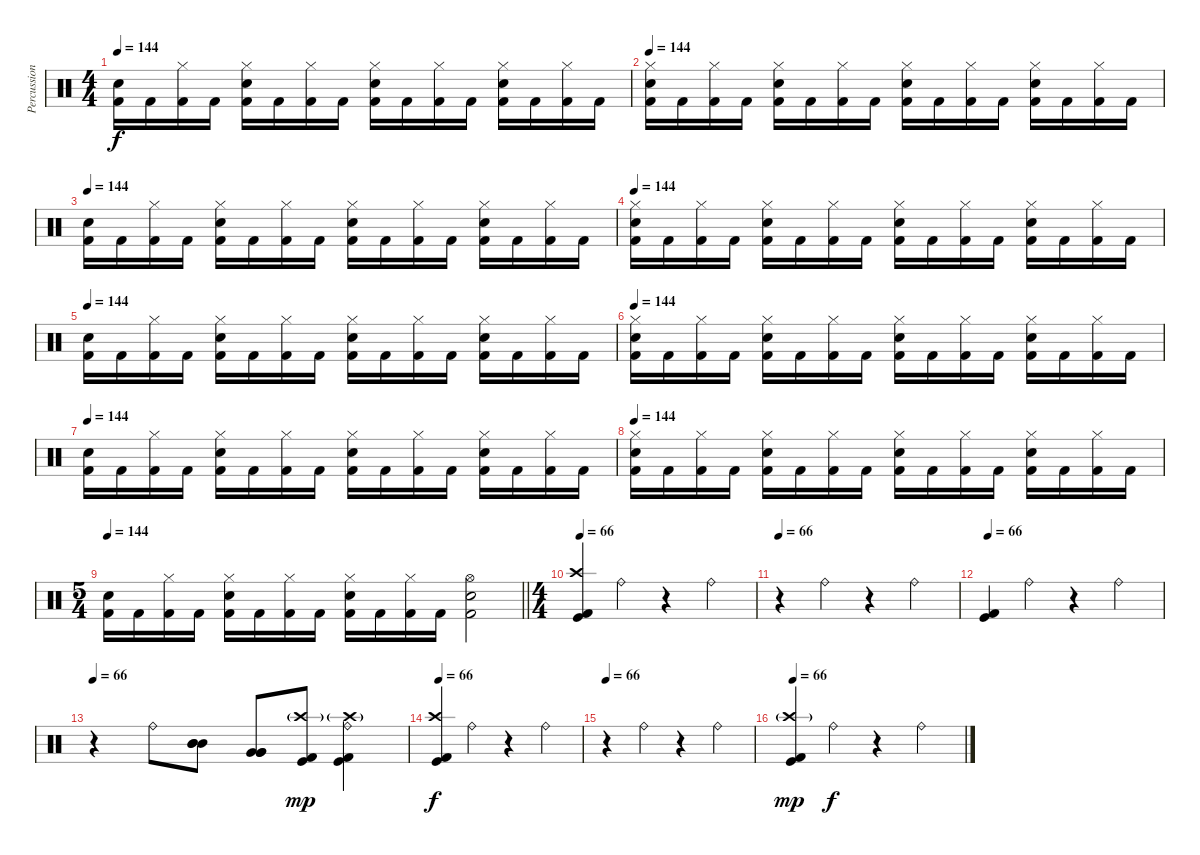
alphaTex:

\track ("Percussions" "Percussion") {instrument percussion}
\staff {score}
\articulation defaults
\ts (4 4)
\tempo 144
\clef neutral
\ks c
("Electric Snare (hit)" "Kick (hit) 2").16{dy f} "Kick (hit) 2".16 ("Hi-Hat (closed)" "Kick (hit) 2").16 "Kick (hit) 2".16 ("Hi-Hat (closed)" "Electric Snare (hit)" "Kick (hit) 2").16 "Kick (hit) 2".16 ("Hi-Hat (closed)" "Kick (hit) 2").16 "Kick (hit) 2".16 ("Hi-Hat (closed)" "Electric Snare (hit)" "Kick (hit) 2").16 "Kick (hit) 2".16 ("Hi-Hat (closed)" "Kick (hit) 2").16 "Kick (hit) 2".16 ("Hi-Hat (closed)" "Electric Snare (hit)" "Kick (hit) 2").16 "Kick (hit) 2".16 ("Hi-Hat (closed)" "Kick (hit) 2").16 "Kick (hit) 2".16 |
\tempo 144
("Hi-Hat (closed)" "Electric Snare (hit)" "Kick (hit) 2").16 "Kick (hit) 2".16 ("Hi-Hat (closed)" "Kick (hit) 2").16 "Kick (hit) 2".16 ("Hi-Hat (closed)" "Electric Snare (hit)" "Kick (hit) 2").16 "Kick (hit) 2".16 ("Hi-Hat (closed)" "Kick (hit) 2").16 "Kick (hit) 2".16 ("Hi-Hat (closed)" "Electric Snare (hit)" "Kick (hit) 2").16 "Kick (hit) 2".16 ("Hi-Hat (closed)" "Kick (hit) 2").16 "Kick (hit) 2".16 ("Hi-Hat (closed)" "Electric Snare (hit)" "Kick (hit) 2").16 "Kick (hit) 2".16 ("Hi-Hat (closed)" "Kick (hit) 2").16 "Kick (hit) 2".16 |
\tempo 144
("Electric Snare (hit)" "Kick (hit) 2").16 "Kick (hit) 2".16 ("Hi-Hat (closed)" "Kick (hit) 2").16 "Kick (hit) 2".16 ("Hi-Hat (closed)" "Electric Snare (hit)" "Kick (hit) 2").16 "Kick (hit) 2".16 ("Hi-Hat (closed)" "Kick (hit) 2").16 "Kick (hit) 2".16 ("Hi-Hat (closed)" "Electric Snare (hit)" "Kick (hit) 2").16 "Kick (hit) 2".16 ("Hi-Hat (closed)" "Kick (hit) 2").16 "Kick (hit) 2".16 ("Hi-Hat (closed)" "Electric Snare (hit)" "Kick (hit) 2").16 "Kick (hit) 2".16 ("Hi-Hat (closed)" "Kick (hit) 2").16 "Kick (hit) 2".16 |
\tempo 144
("Hi-Hat (closed)" "Electric Snare (hit)" "Kick (hit) 2").16 "Kick (hit) 2".16 ("Hi-Hat (closed)" "Kick (hit) 2").16 "Kick (hit) 2".16 ("Hi-Hat (closed)" "Electric Snare (hit)" "Kick (hit) 2").16 "Kick (hit) 2".16 ("Hi-Hat (closed)" "Kick (hit) 2").16 "Kick (hit) 2".16 ("Hi-Hat (closed)" "Electric Snare (hit)" "Kick (hit) 2").16 "Kick (hit) 2".16 ("Hi-Hat (closed)" "Kick (hit) 2").16 "Kick (hit) 2".16 ("Hi-Hat (closed)" "Electric Snare (hit)" "Kick (hit) 2").16 "Kick (hit) 2".16 ("Hi-Hat (closed)" "Kick (hit) 2").16 "Kick (hit) 2".16 |
\tempo 144
("Electric Snare (hit)" "Kick (hit) 2").16 "Kick (hit) 2".16 ("Hi-Hat (closed)" "Kick (hit) 2").16 "Kick (hit) 2".16 ("Hi-Hat (closed)" "Electric Snare (hit)" "Kick (hit) 2").16 "Kick (hit) 2".16 ("Hi-Hat (closed)" "Kick (hit) 2").16 "Kick (hit) 2".16 ("Hi-Hat (closed)" "Electric Snare (hit)" "Kick (hit) 2").16 "Kick (hit) 2".16 ("Hi-Hat (closed)" "Kick (hit) 2").16 "Kick (hit) 2".16 ("Hi-Hat (closed)" "Electric Snare (hit)" "Kick (hit) 2").16 "Kick (hit) 2".16 ("Hi-Hat (closed)" "Kick (hit) 2").16 "Kick (hit) 2".16 |
\tempo 144
("Hi-Hat (closed)" "Electric Snare (hit)" "Kick (hit) 2").16 "Kick (hit) 2".16 ("Hi-Hat (closed)" "Kick (hit) 2").16 "Kick (hit) 2".16 ("Hi-Hat (closed)" "Electric Snare (hit)" "Kick (hit) 2").16 "Kick (hit) 2".16 ("Hi-Hat (closed)" "Kick (hit) 2").16 "Kick (hit) 2".16 ("Hi-Hat (closed)" "Electric Snare (hit)" "Kick (hit) 2").16 "Kick (hit) 2".16 ("Hi-Hat (closed)" "Kick (hit) 2").16 "Kick (hit) 2".16 ("Hi-Hat (closed)" "Electric Snare (hit)" "Kick (hit) 2").16 "Kick (hit) 2".16 ("Hi-Hat (closed)" "Kick (hit) 2").16 "Kick (hit) 2".16 |
\tempo 144
("Electric Snare (hit)" "Kick (hit) 2").16 "Kick (hit) 2".16 ("Hi-Hat (closed)" "Kick (hit) 2").16 "Kick (hit) 2".16 ("Hi-Hat (closed)" "Electric Snare (hit)" "Kick (hit) 2").16 "Kick (hit) 2".16 ("Hi-Hat (closed)" "Kick (hit) 2").16 "Kick (hit) 2".16 ("Hi-Hat (closed)" "Electric Snare (hit)" "Kick (hit) 2").16 "Kick (hit) 2".16 ("Hi-Hat (closed)" "Kick (hit) 2").16 "Kick (hit) 2".16 ("Hi-Hat (closed)" "Electric Snare (hit)" "Kick (hit) 2").16 "Kick (hit) 2".16 ("Hi-Hat (closed)" "Kick (hit) 2").16 "Kick (hit) 2".16 |
\tempo 144
("Hi-Hat (closed)" "Electric Snare (hit)" "Kick (hit) 2").16 "Kick (hit) 2".16 ("Hi-Hat (closed)" "Kick (hit) 2").16 "Kick (hit) 2".16 ("Hi-Hat (closed)" "Electric Snare (hit)" "Kick (hit) 2").16 "Kick (hit) 2".16 ("Hi-Hat (closed)" "Kick (hit) 2").16 "Kick (hit) 2".16 ("Hi-Hat (closed)" "Electric Snare (hit)" "Kick (hit) 2").16 "Kick (hit) 2".16 ("Hi-Hat (closed)" "Kick (hit) 2").16 "Kick (hit) 2".16 ("Hi-Hat (closed)" "Electric Snare (hit)" "Kick (hit) 2").16 "Kick (hit) 2".16 ("Hi-Hat (closed)" "Kick (hit) 2").16 "Kick (hit) 2".16 |
\ts (5 4)
\tempo 144
\barLineRight lightlight
("Electric Snare (hit)" "Kick (hit) 2").16 "Kick (hit) 2".16 ("Hi-Hat (closed)" "Kick (hit) 2").16 "Kick (hit) 2".16 ("Hi-Hat (closed)" "Electric Snare (hit)" "Kick (hit) 2").16 "Kick (hit) 2".16 ("Hi-Hat (closed)" "Kick (hit) 2").16 "Kick (hit) 2".16 ("Hi-Hat (closed)" "Electric Snare (hit)" "Kick (hit) 2").16 "Kick (hit) 2".16 ("Hi-Hat (closed)" "Kick (hit) 2").16 "Kick (hit) 2".16 ("Hi-Hat (open)" "Electric Snare (hit)" "Kick (hit) 2").2 |
\ts (4 4)
\tempo 66
("Crash high (hit)" "Kick (hit)" "Kick (hit) 2").4 "Ride (bell)".4 r.4 "Ride (bell)".4 |
\tempo 66
r.4 "Ride (bell)".4 r.4 "Ride (bell)".4 |
\tempo 66
("Kick (hit)" "Kick (hit) 2").4 "Ride (bell)".4 r.4 "Ride (bell)".4 |
\tempo 66
r.4 "Ride (bell)".8 ("Mid Tom (hit)" "Mid Tom (hit)" "Mid Tom (hit)").8 ("Very Low Tom (hit)" "Very Low Tom (hit)" "Very Low Tom (hit)").8 ("Crash high (hit)"{g} "Kick (hit)" "Kick (hit) 2").8{dy mp} ("Ride (bell)" "Crash high (hit)"{g} "Kick (hit)" "Kick (hit) 2").4 |
\tempo 66
("Crash high (hit)" "Kick (hit)" "Kick (hit) 2").4{dy f} "Ride (bell)".4 r.4 "Ride (bell)".4 |
\tempo 66
r.4 "Ride (bell)".4 r.4 "Ride (bell)".4 |
\tempo 66
("Crash high (hit)"{g} "Kick (hit)" "Kick (hit) 2").4{dy mp} "Ride (bell)".4{dy f} r.4 "Ride (bell)".4
